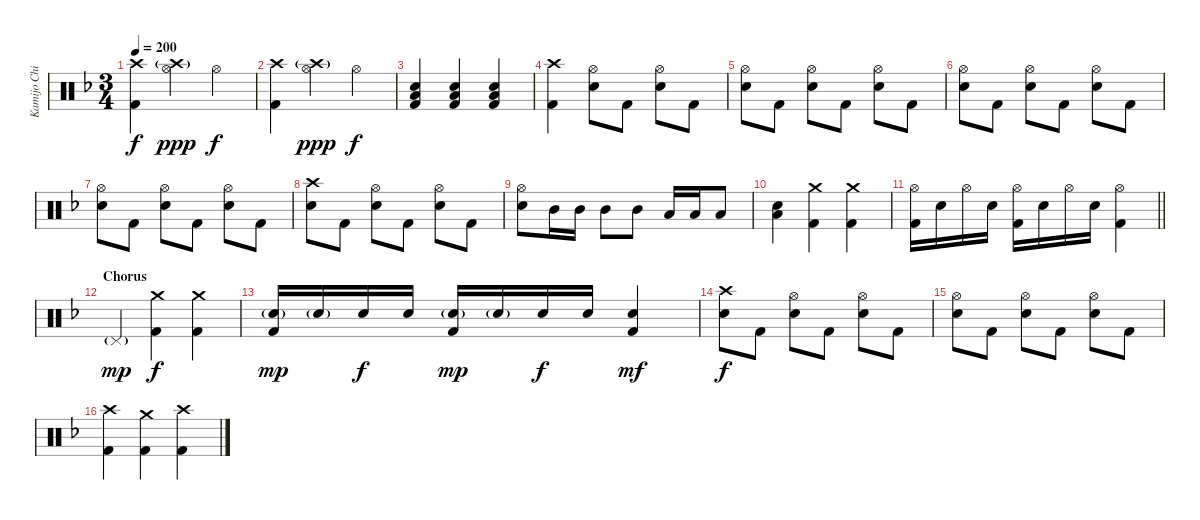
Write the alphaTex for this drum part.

\track ("Kamijo Chihiro" "Kamijo Chi") {instrument percussion}
\staff {score}
\articulation defaults
\ts (3 4)
\tempo 200
\clef neutral
\ks dminor
("Crash high (hit)" "Kick (hit) 2").4{dy f} ("Crash high (hit)"{g} "Hi-Hat (open)").4{dy ppp} "Hi-Hat (open)".4{dy f} |
("Crash high (hit)" "Kick (hit) 2").4 ("Crash high (hit)"{g} "Hi-Hat (open)").4{dy ppp} "Hi-Hat (open)".4{dy f} |
("Snare (hit) 2" "Low Floor Tom (hit)" "Kick (hit) 2").4 ("Snare (hit) 2" "Low Floor Tom (hit)" "Kick (hit) 2").4 ("Snare (hit) 2" "Low Floor Tom (hit)" "Kick (hit) 2").4 |
("Crash high (hit)" "Kick (hit) 2").4 ("Hi-Hat (open)" "Snare (hit) 2").8 "Kick (hit) 2".8 ("Hi-Hat (open)" "Snare (hit) 2").8 "Kick (hit) 2".8 |
("Hi-Hat (open)" "Snare (hit) 2").8 "Kick (hit) 2".8 ("Hi-Hat (open)" "Snare (hit) 2").8 "Kick (hit) 2".8 ("Hi-Hat (open)" "Snare (hit) 2").8 "Kick (hit) 2".8 |
("Hi-Hat (open)" "Snare (hit) 2").8 "Kick (hit) 2".8 ("Hi-Hat (open)" "Snare (hit) 2").8 "Kick (hit) 2".8 ("Hi-Hat (open)" "Snare (hit) 2").8 "Kick (hit) 2".8 |
("Hi-Hat (open)" "Snare (hit) 2").8 "Kick (hit) 2".8 ("Hi-Hat (open)" "Snare (hit) 2").8 "Kick (hit) 2".8 ("Hi-Hat (open)" "Snare (hit) 2").8 "Kick (hit) 2".8 |
("Crash high (hit)" "Snare (hit) 2").8 "Kick (hit) 2".8 ("Hi-Hat (open)" "Snare (hit) 2").8 "Kick (hit) 2".8 ("Hi-Hat (open)" "Snare (hit) 2").8 "Kick (hit) 2".8 |
("Hi-Hat (open)" "Snare (hit) 2").8 "Mid Tom (hit)".16 "Mid Tom (hit)".16 "Mid Tom (hit)".8 "Mid Tom (hit)".8 "Low Tom (hit)".16 "Low Tom (hit)".16 "Low Tom (hit)".8 |
("Snare (hit) 2" "Low Floor Tom (hit)").4 ("Crash medium (hit)" "Kick (hit) 2").4 ("Crash medium (hit)" "Kick (hit) 2").4 |
\barLineRight lightlight
("Hi-Hat (open)" "Kick (hit) 2").16 "Snare (hit) 2".16 "Hi-Hat (open)".16 "Snare (hit) 2".16 ("Hi-Hat (open)" "Kick (hit) 2").16 "Snare (hit) 2".16 "Hi-Hat (open)".16 "Snare (hit) 2".16 ("Hi-Hat (open)" "Kick (hit) 2").4 |
\section ("" "Chorus")
"Pedal Hi-Hat (hit)"{g}.4{dy mp} ("Crash medium (hit)" "Kick (hit) 2").4{dy f} ("Crash medium (hit)" "Kick (hit) 2").4 |
("Snare (hit) 2"{g} "Kick (hit) 2").16{dy mp} "Snare (hit) 2"{g}.16 "Snare (hit) 2".16{dy f} "Snare (hit) 2".16 ("Snare (hit) 2"{g} "Kick (hit) 2").16{dy mp} "Snare (hit) 2"{g}.16 "Snare (hit) 2".16{dy f} "Snare (hit) 2".16 ("Snare (hit) 2" "Kick (hit) 2").4{dy mf} |
("Crash high (hit)" "Snare (hit) 2").8{dy f} "Kick (hit) 2".8 ("Hi-Hat (open)" "Snare (hit) 2").8 "Kick (hit) 2".8 ("Hi-Hat (open)" "Snare (hit) 2").8 "Kick (hit) 2".8 |
("Hi-Hat (open)" "Snare (hit) 2").8 "Kick (hit) 2".8 ("Hi-Hat (open)" "Snare (hit) 2").8 "Kick (hit) 2".8 ("Hi-Hat (open)" "Snare (hit) 2").8 "Kick (hit) 2".8 |
("Crash high (hit)" "Kick (hit) 2").4 ("Crash medium (hit)" "Kick (hit) 2").4 ("Crash high (hit)" "Kick (hit) 2").4
